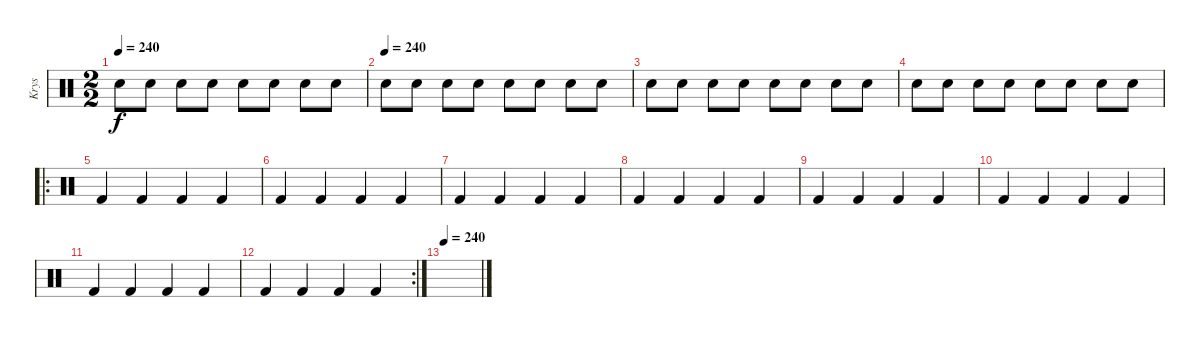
\track ("Krys" "Krys") {instrument percussion}
\staff {score}
\articulation defaults
\ts (2 2)
\tempo 240
\clef neutral
\ks c "Snare (hit) 2".8{dy f} "Snare (hit) 2".8 "Snare (hit) 2".8 "Snare (hit) 2".8 "Snare (hit) 2".8 "Snare (hit) 2".8 "Snare (hit) 2".8 "Snare (hit) 2".8
|
\tempo (240)
"Snare (hit) 2".8 "Snare (hit) 2".8 "Snare (hit) 2".8 "Snare (hit) 2".8 "Snare (hit) 2".8 "Snare (hit) 2".8 "Snare (hit) 2".8 "Snare (hit) 2".8 |
"Snare (hit) 2".8 "Snare (hit) 2".8 "Snare (hit) 2".8 "Snare (hit) 2".8 "Snare (hit) 2".8 "Snare (hit) 2".8 "Snare (hit) 2".8 "Snare (hit) 2".8 |
"Snare (hit) 2".8 "Snare (hit) 2".8 "Snare (hit) 2".8 "Snare (hit) 2".8 "Snare (hit) 2".8 "Snare (hit) 2".8 "Snare (hit) 2".8 "Snare (hit) 2".8 |
\ro "Kick (hit) 2".4 "Kick (hit) 2".4 "Kick (hit) 2".4 "Kick (hit) 2".4
|
"Kick (hit) 2".4 "Kick (hit) 2".4 "Kick (hit) 2".4 "Kick (hit) 2".4 |
"Kick (hit) 2".4 "Kick (hit) 2".4 "Kick (hit) 2".4 "Kick (hit) 2".4 |
"Kick (hit) 2".4 "Kick (hit) 2".4 "Kick (hit) 2".4 "Kick (hit) 2".4 |
"Kick (hit) 2".4 "Kick (hit) 2".4 "Kick (hit) 2".4 "Kick (hit) 2".4 |
"Kick (hit) 2".4 "Kick (hit) 2".4 "Kick (hit) 2".4 "Kick (hit) 2".4 |
"Kick (hit) 2".4 "Kick (hit) 2".4 "Kick (hit) 2".4 "Kick (hit) 2".4 |
\rc 2 "Kick (hit) 2".4 "Kick (hit) 2".4 "Kick (hit) 2".4 "Kick (hit) 2".4
|
\tempo 240
